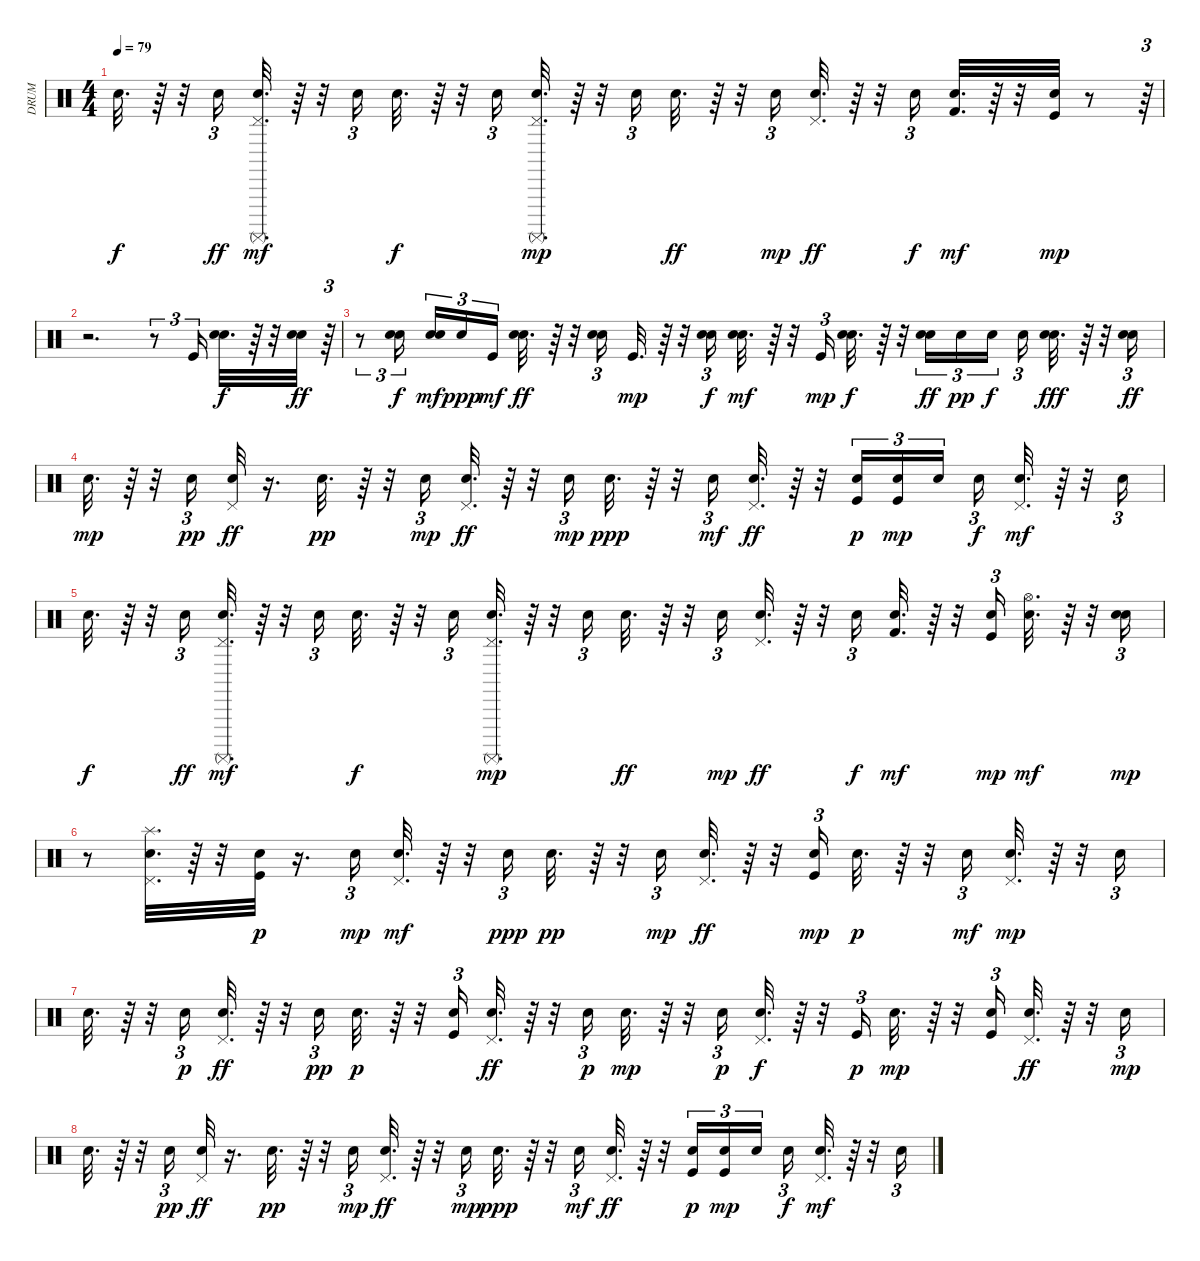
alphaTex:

\track ("DRUM" "DRUM") {instrument percussion}
\staff {score}
\articulation defaults
\ts (4 4)
\tempo 79
\clef neutral
\ks c "Hand Clap (hit)".32{d dy f}
r.64 r.32 "Hand Clap (hit)".16{tu (3 2) dy ff} ("Snare (hit) 2" "Pedal Hi-Hat (hit)" "Surdo (mute)").32{d dy mf} r.64 r.32 "Snare (hit) 2".16{tu (3 2)} "Hand Clap (hit)".32{d dy f} r.64 r.32 "Hand Clap (hit)".16{tu (3 2)} ("Snare (hit) 2" "Pedal Hi-Hat (hit)" "Surdo (mute)").32{d dy mp} r.64 r.32 "Snare (hit) 2".16{tu (3 2)} "Hand Clap (hit)".32{d dy ff} r.64 r.32 "Snare (hit) 2".16{tu (3 2) dy mp} ("Hand Clap (hit)" "Pedal Hi-Hat (hit)").32{d dy ff} r.64 r.32 "Hand Clap (hit)".16{tu (3 2) dy f} ("Kick (hit) 2" "Snare (hit) 2").32{d dy mf} r.64 r.32 ("Kick (hit)" "Hand Clap (hit)").32{dy mp} r.8 r.64{tu (3 2)} |
r.2{d} r.8{tu (3 2)} "Kick (hit)".16{tu (3 2)} ("Snare (hit) 2" "Hand Clap (hit)").32{d dy f} r.64 r.32 ("Snare (hit) 2" "Hand Clap (hit)").32{dy ff} r.64{tu (3 2)} |
r.8{tu (3 2)} ("Snare (hit) 2" "Hand Clap (hit)").16{tu (3 2) dy f} ("Snare (hit) 2" "Hand Clap (hit)").16{tu (3 2) dy mf} "Hand Clap (hit)".16{tu (3 2) dy ppp} "Kick (hit)".16{tu (3 2) dy mf} ("Snare (hit) 2" "Hand Clap (hit)").32{d dy ff} r.64 r.32 ("Snare (hit) 2" "Hand Clap (hit)").16{tu (3 2)} "Kick (hit)".32{d dy mp} r.64 r.32 ("Snare (hit) 2" "Hand Clap (hit)").16{tu (3 2) dy f} ("Snare (hit) 2" "Hand Clap (hit)").32{d dy mf} r.64 r.32 "Kick (hit)".16{tu (3 2) dy mp} ("Snare (hit) 2" "Hand Clap (hit)").32{d dy f} r.64 r.32 ("Snare (hit) 2" "Hand Clap (hit)").16{tu (3 2) dy ff} "Snare (hit) 2".16{tu (3 2) dy pp} "Snare (hit) 2".16{tu (3 2) dy f} "Snare (hit) 2".16{tu (3 2)} ("Snare (hit) 2" "Hand Clap (hit)").32{d dy fff} r.64 r.32 ("Snare (hit) 2" "Hand Clap (hit)").16{tu (3 2) dy ff} |
"Snare (hit) 2".32{d dy mp} r.64 r.32 "Snare (hit) 2".16{tu (3 2) dy pp} ("Hand Clap (hit)" "Pedal Hi-Hat (hit)").32{dy ff} r.16{d} "Snare (hit) 2".32{d dy pp} r.64 r.32 "Snare (hit) 2".16{tu (3 2) dy mp} ("Snare (hit) 2" "Pedal Hi-Hat (hit)").32{d dy ff} r.64 r.32 "Snare (hit) 2".16{tu (3 2) dy mp} "Snare (hit) 2".32{d dy ppp} r.64 r.32 "Hand Clap (hit)".16{tu (3 2) dy mf} ("Snare (hit) 2" "Pedal Hi-Hat (hit)").32{d dy ff} r.64 r.32 ("Kick (hit)" "Snare (hit) 2").16{tu (3 2) dy p} ("Kick (hit)" "Snare (hit) 2").16{tu (3 2) dy mp} "Snare (hit) 2".16{tu (3 2)} "Hand Clap (hit)".16{tu (3 2) dy f} ("Snare (hit) 2" "Pedal Hi-Hat (hit)").32{d dy mf} r.64 r.32 "Snare (hit) 2".16{tu (3 2)} |
"Hand Clap (hit)".32{d dy f} r.64 r.32 "Hand Clap (hit)".16{tu (3 2) dy ff} ("Snare (hit) 2" "Pedal Hi-Hat (hit)" "Surdo (mute)").32{d dy mf} r.64 r.32 "Snare (hit) 2".16{tu (3 2)} "Hand Clap (hit)".32{d dy f} r.64 r.32 "Hand Clap (hit)".16{tu (3 2)} ("Snare (hit) 2" "Pedal Hi-Hat (hit)" "Surdo (mute)").32{d dy mp} r.64 r.32 "Snare (hit) 2".16{tu (3 2)} "Hand Clap (hit)".32{d dy ff} r.64 r.32 "Snare (hit) 2".16{tu (3 2) dy mp} ("Hand Clap (hit)" "Pedal Hi-Hat (hit)").32{d dy ff} r.64 r.32 "Hand Clap (hit)".16{tu (3 2) dy f} ("Kick (hit) 2" "Snare (hit) 2").32{d dy mf} r.64 r.32 ("Kick (hit)" "Hand Clap (hit)").16{tu (3 2) dy mp} ("Hand Clap (hit)" "Hi-Hat (open)").32{d dy mf} r.64 r.32 ("Snare (hit) 2" "Hand Clap (hit)").16{tu (3 2) dy mp} |
r.8 ("Hand Clap (hit)" "Pedal Hi-Hat (hit)" "Splash (hit)").32{d} r.64 r.32 ("Kick (hit)" "Snare (hit) 2").32{dy p} r.16{d} "Snare (hit) 2".16{tu (3 2) dy mp} ("Hand Clap (hit)" "Pedal Hi-Hat (hit)").32{d dy mf} r.64 r.32 "Snare (hit) 2".16{tu (3 2) dy ppp} "Snare (hit) 2".32{d dy pp} r.64 r.32 "Snare (hit) 2".16{tu (3 2) dy mp} ("Snare (hit) 2" "Pedal Hi-Hat (hit)").32{d dy ff} r.64 r.32 ("Kick (hit)" "Snare (hit) 2").16{tu (3 2) dy mp} "Snare (hit) 2".32{d dy p} r.64 r.32 "Hand Clap (hit)".16{tu (3 2) dy mf} ("Snare (hit) 2" "Pedal Hi-Hat (hit)").32{d dy mp} r.64 r.32 "Snare (hit) 2".16{tu (3 2)} |
"Snare (hit) 2".32{d} r.64 r.32 "Snare (hit) 2".16{tu (3 2) dy p} ("Snare (hit) 2" "Pedal Hi-Hat (hit)").32{d dy ff} r.64 r.32 "Snare (hit) 2".16{tu (3 2) dy pp} "Snare (hit) 2".32{d dy p} r.64 r.32 ("Kick (hit)" "Hand Clap (hit)").16{tu (3 2)} ("Snare (hit) 2" "Pedal Hi-Hat (hit)").32{d dy ff} r.64 r.32 "Snare (hit) 2".16{tu (3 2) dy p} "Snare (hit) 2".32{d dy mp} r.64 r.32 "Snare (hit) 2".16{tu (3 2) dy p} ("Snare (hit) 2" "Pedal Hi-Hat (hit)").32{d dy f} r.64 r.32 "Kick (hit)".16{tu (3 2) dy p} "Snare (hit) 2".32{d dy mp} r.64 r.32 ("Kick (hit)" "Hand Clap (hit)").16{tu (3 2)} ("Snare (hit) 2" "Pedal Hi-Hat (hit)").32{d dy ff} r.64 r.32 "Hand Clap (hit)".16{tu (3 2) dy mp} |
"Snare (hit) 2".32{d} r.64 r.32 "Snare (hit) 2".16{tu (3 2) dy pp} ("Hand Clap (hit)" "Pedal Hi-Hat (hit)").32{dy ff} r.16{d} "Snare (hit) 2".32{d dy pp} r.64 r.32 "Snare (hit) 2".16{tu (3 2) dy mp} ("Snare (hit) 2" "Pedal Hi-Hat (hit)").32{d dy ff} r.64 r.32 "Snare (hit) 2".16{tu (3 2) dy mp} "Snare (hit) 2".32{d dy ppp} r.64 r.32 "Hand Clap (hit)".16{tu (3 2) dy mf} ("Snare (hit) 2" "Pedal Hi-Hat (hit)").32{d dy ff} r.64 r.32 ("Kick (hit)" "Snare (hit) 2").16{tu (3 2) dy p} ("Kick (hit)" "Snare (hit) 2").16{tu (3 2) dy mp} "Snare (hit) 2".16{tu (3 2)} "Hand Clap (hit)".16{tu (3 2) dy f} ("Snare (hit) 2" "Pedal Hi-Hat (hit)").32{d dy mf} r.64 r.32 "Snare (hit) 2".16{tu (3 2)}
